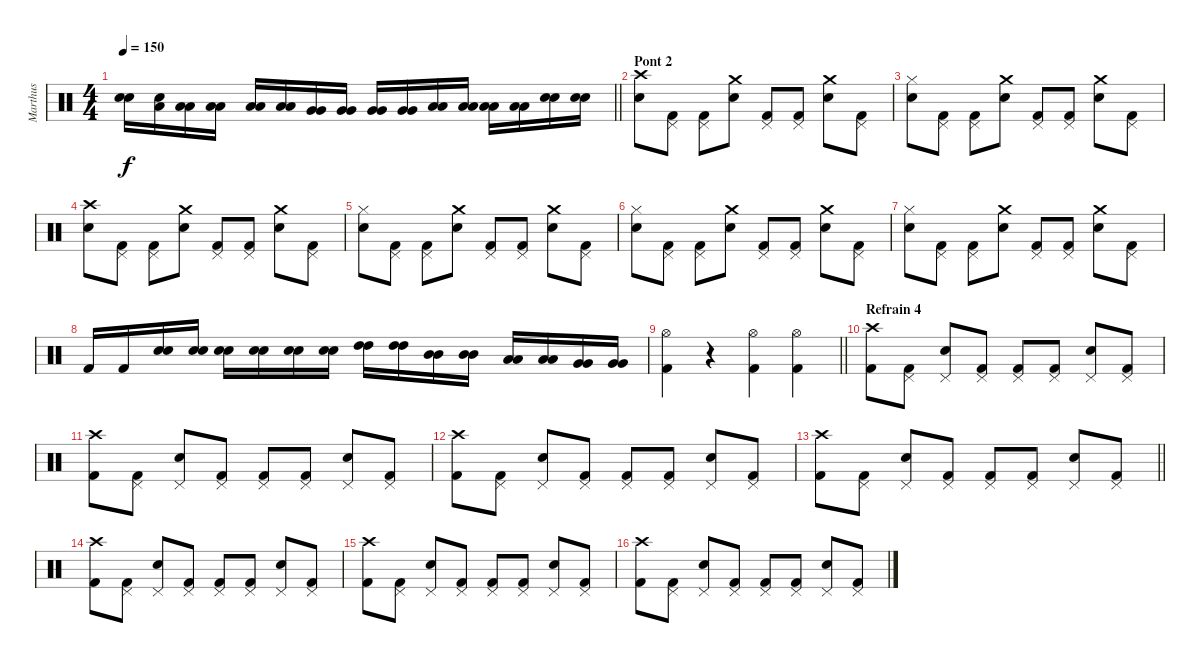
\track ("Marthus" "Marthus") {instrument percussion}
\staff {score}
\articulation defaults
\ts (4 4)
\tempo 150
\clef neutral
\barLineRight lightlight
\ks c
("Electric Snare (hit)" "Electric Snare (hit)").16{dy f} ("Electric Snare (hit)" "Low Floor Tom (hit)").16 ("Low Tom (hit)" "Low Tom (hit)").16 ("Low Tom (hit)" "Low Tom (hit)").16 ("Low Tom (hit)" "Low Tom (hit)").16 ("Low Tom (hit)" "Low Tom (hit)").16 ("Very Low Tom (hit)" "Very Low Tom (hit)").16 ("Very Low Tom (hit)" "Very Low Tom (hit)").16 ("Very Low Tom (hit)" "Very Low Tom (hit)").16 ("Very Low Tom (hit)" "Very Low Tom (hit)").16 ("Low Floor Tom (hit)" "Low Floor Tom (hit)").16 ("Low Floor Tom (hit)" "Low Floor Tom (hit)").16 ("Low Floor Tom (hit)" "Low Floor Tom (hit)").16 ("Low Floor Tom (hit)" "Low Floor Tom (hit)").16 ("Electric Snare (hit)" "Electric Snare (hit)").16 ("Electric Snare (hit)" "Electric Snare (hit)").16 |
\section ("" "Pont 2")
("Electric Snare (hit)" "Crash high (hit)").8 ("Kick (hit) 2" "Pedal Hi-Hat (hit)").8 ("Kick (hit) 2" "Pedal Hi-Hat (hit)").8 ("Electric Snare (hit)" "Crash medium (hit)").8 ("Kick (hit) 2" "Pedal Hi-Hat (hit)").8 ("Kick (hit) 2" "Pedal Hi-Hat (hit)").8 ("Electric Snare (hit)" "Crash medium (hit)").8 ("Kick (hit) 2" "Pedal Hi-Hat (hit)").8 |
("Electric Snare (hit)" "Hi-Hat (closed)").8 ("Kick (hit) 2" "Pedal Hi-Hat (hit)").8 ("Kick (hit) 2" "Pedal Hi-Hat (hit)").8 ("Electric Snare (hit)" "Crash medium (hit)").8 ("Kick (hit) 2" "Pedal Hi-Hat (hit)").8 ("Kick (hit) 2" "Pedal Hi-Hat (hit)").8 ("Electric Snare (hit)" "Crash medium (hit)").8 ("Kick (hit) 2" "Pedal Hi-Hat (hit)").8 |
("Electric Snare (hit)" "Crash high (hit)").8 ("Kick (hit) 2" "Pedal Hi-Hat (hit)").8 ("Kick (hit) 2" "Pedal Hi-Hat (hit)").8 ("Electric Snare (hit)" "Crash medium (hit)").8 ("Kick (hit) 2" "Pedal Hi-Hat (hit)").8 ("Kick (hit) 2" "Pedal Hi-Hat (hit)").8 ("Electric Snare (hit)" "Crash medium (hit)").8 ("Kick (hit) 2" "Pedal Hi-Hat (hit)").8 |
("Electric Snare (hit)" "Hi-Hat (closed)").8 ("Kick (hit) 2" "Pedal Hi-Hat (hit)").8 ("Kick (hit) 2" "Pedal Hi-Hat (hit)").8 ("Electric Snare (hit)" "Crash medium (hit)").8 ("Kick (hit) 2" "Pedal Hi-Hat (hit)").8 ("Kick (hit) 2" "Pedal Hi-Hat (hit)").8 ("Electric Snare (hit)" "Crash medium (hit)").8 ("Kick (hit) 2" "Pedal Hi-Hat (hit)").8 |
("Electric Snare (hit)" "Hi-Hat (closed)").8 ("Kick (hit) 2" "Pedal Hi-Hat (hit)").8 ("Kick (hit) 2" "Pedal Hi-Hat (hit)").8 ("Electric Snare (hit)" "Crash medium (hit)").8 ("Kick (hit) 2" "Pedal Hi-Hat (hit)").8 ("Kick (hit) 2" "Pedal Hi-Hat (hit)").8 ("Electric Snare (hit)" "Crash medium (hit)").8 ("Kick (hit) 2" "Pedal Hi-Hat (hit)").8 |
("Electric Snare (hit)" "Hi-Hat (closed)").8 ("Kick (hit) 2" "Pedal Hi-Hat (hit)").8 ("Kick (hit) 2" "Pedal Hi-Hat (hit)").8 ("Electric Snare (hit)" "Crash medium (hit)").8 ("Kick (hit) 2" "Pedal Hi-Hat (hit)").8 ("Kick (hit) 2" "Pedal Hi-Hat (hit)").8 ("Electric Snare (hit)" "Crash medium (hit)").8 ("Kick (hit) 2" "Pedal Hi-Hat (hit)").8 |
"Kick (hit) 2".16 "Kick (hit) 2".16 ("Electric Snare (hit)" "Electric Snare (hit)").16 ("Electric Snare (hit)" "Electric Snare (hit)").16 ("Electric Snare (hit)" "Electric Snare (hit)").16 ("Electric Snare (hit)" "Electric Snare (hit)").16 ("Electric Snare (hit)" "Electric Snare (hit)").16 ("Electric Snare (hit)" "Electric Snare (hit)").16 ("High Tom (hit)" "High Tom (hit)").16 ("High Tom (hit)" "High Tom (hit)").16 ("Mid Tom (hit)" "Mid Tom (hit)").16 ("Mid Tom (hit)" "Mid Tom (hit)").16 ("Low Tom (hit)" "Low Tom (hit)").16 ("Low Tom (hit)" "Low Tom (hit)").16 ("Very Low Tom (hit)" "Very Low Tom (hit)").16 ("Very Low Tom (hit)" "Very Low Tom (hit)").16 |
\barLineRight lightlight
("Kick (hit) 2" "Hi-Hat (open)").4 r.4 ("Kick (hit) 2" "Hi-Hat (open)").4 ("Kick (hit) 2" "Hi-Hat (open)").4 |
\section ("" "Refrain 4")
("Kick (hit) 2" "Crash high (hit)").8 ("Kick (hit) 2" "Pedal Hi-Hat (hit)").8 ("Electric Snare (hit)" "Pedal Hi-Hat (hit)").8 ("Kick (hit) 2" "Pedal Hi-Hat (hit)").8 ("Kick (hit) 2" "Pedal Hi-Hat (hit)").8 ("Kick (hit) 2" "Pedal Hi-Hat (hit)").8 ("Electric Snare (hit)" "Pedal Hi-Hat (hit)").8 ("Kick (hit) 2" "Pedal Hi-Hat (hit)").8 |
("Kick (hit) 2" "Crash high (hit)").8 ("Kick (hit) 2" "Pedal Hi-Hat (hit)").8 ("Electric Snare (hit)" "Pedal Hi-Hat (hit)").8 ("Kick (hit) 2" "Pedal Hi-Hat (hit)").8 ("Kick (hit) 2" "Pedal Hi-Hat (hit)").8 ("Kick (hit) 2" "Pedal Hi-Hat (hit)").8 ("Electric Snare (hit)" "Pedal Hi-Hat (hit)").8 ("Kick (hit) 2" "Pedal Hi-Hat (hit)").8 |
("Kick (hit) 2" "Crash high (hit)").8 ("Kick (hit) 2" "Pedal Hi-Hat (hit)").8 ("Electric Snare (hit)" "Pedal Hi-Hat (hit)").8 ("Kick (hit) 2" "Pedal Hi-Hat (hit)").8 ("Kick (hit) 2" "Pedal Hi-Hat (hit)").8 ("Kick (hit) 2" "Pedal Hi-Hat (hit)").8 ("Electric Snare (hit)" "Pedal Hi-Hat (hit)").8 ("Kick (hit) 2" "Pedal Hi-Hat (hit)").8 |
\barLineRight lightlight
("Kick (hit) 2" "Crash high (hit)").8 ("Kick (hit) 2" "Pedal Hi-Hat (hit)").8 ("Electric Snare (hit)" "Pedal Hi-Hat (hit)").8 ("Kick (hit) 2" "Pedal Hi-Hat (hit)").8 ("Kick (hit) 2" "Pedal Hi-Hat (hit)").8 ("Kick (hit) 2" "Pedal Hi-Hat (hit)").8 ("Electric Snare (hit)" "Pedal Hi-Hat (hit)").8 ("Kick (hit) 2" "Pedal Hi-Hat (hit)").8 |
("Kick (hit) 2" "Crash high (hit)").8 ("Kick (hit) 2" "Pedal Hi-Hat (hit)").8 ("Electric Snare (hit)" "Pedal Hi-Hat (hit)").8 ("Kick (hit) 2" "Pedal Hi-Hat (hit)").8 ("Kick (hit) 2" "Pedal Hi-Hat (hit)").8 ("Kick (hit) 2" "Pedal Hi-Hat (hit)").8 ("Electric Snare (hit)" "Pedal Hi-Hat (hit)").8 ("Kick (hit) 2" "Pedal Hi-Hat (hit)").8 |
("Kick (hit) 2" "Crash high (hit)").8 ("Kick (hit) 2" "Pedal Hi-Hat (hit)").8 ("Electric Snare (hit)" "Pedal Hi-Hat (hit)").8 ("Kick (hit) 2" "Pedal Hi-Hat (hit)").8 ("Kick (hit) 2" "Pedal Hi-Hat (hit)").8 ("Kick (hit) 2" "Pedal Hi-Hat (hit)").8 ("Electric Snare (hit)" "Pedal Hi-Hat (hit)").8 ("Kick (hit) 2" "Pedal Hi-Hat (hit)").8 |
("Kick (hit) 2" "Crash high (hit)").8 ("Kick (hit) 2" "Pedal Hi-Hat (hit)").8 ("Electric Snare (hit)" "Pedal Hi-Hat (hit)").8 ("Kick (hit) 2" "Pedal Hi-Hat (hit)").8 ("Kick (hit) 2" "Pedal Hi-Hat (hit)").8 ("Kick (hit) 2" "Pedal Hi-Hat (hit)").8 ("Electric Snare (hit)" "Pedal Hi-Hat (hit)").8 ("Kick (hit) 2" "Pedal Hi-Hat (hit)").8
